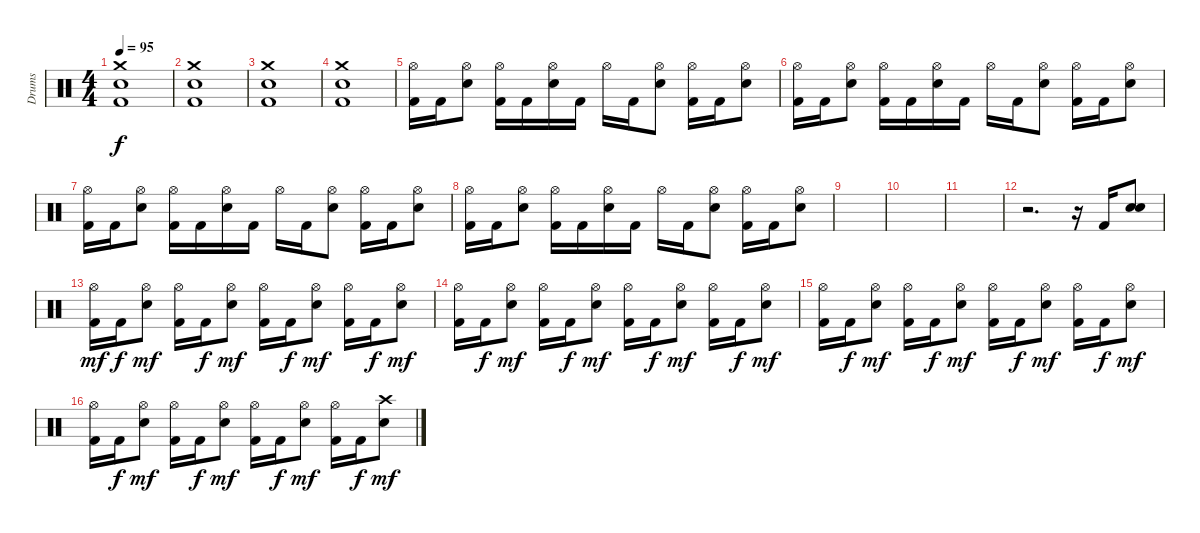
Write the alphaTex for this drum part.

\track ("Drums" "Drums") {instrument percussion}
\staff {score}
\articulation defaults
\ts (4 4)
\tempo 95
\clef neutral
\ks c
("Kick (hit) 2" "Snare (hit) 2" "Crash medium (hit)").1{dy f} |
("Kick (hit) 2" "Snare (hit) 2" "Crash medium (hit)").1 |
("Kick (hit) 2" "Snare (hit) 2" "Crash medium (hit)").1 |
("Kick (hit) 2" "Snare (hit) 2" "Crash medium (hit)").1 |
("Kick (hit) 2" "Hi-Hat (open)").16 "Kick (hit) 2".16 ("Snare (hit) 2" "Hi-Hat (open)").8 ("Kick (hit) 2" "Hi-Hat (open)").16 "Kick (hit) 2".16 ("Snare (hit) 2" "Hi-Hat (open)").16 "Kick (hit) 2".16 "Hi-Hat (open)".16 "Kick (hit) 2".16 ("Snare (hit) 2" "Hi-Hat (open)").8 ("Kick (hit) 2" "Hi-Hat (open)").16 "Kick (hit) 2".16 ("Snare (hit) 2" "Hi-Hat (open)").8 |
("Kick (hit) 2" "Hi-Hat (open)").16 "Kick (hit) 2".16 ("Snare (hit) 2" "Hi-Hat (open)").8 ("Kick (hit) 2" "Hi-Hat (open)").16 "Kick (hit) 2".16 ("Snare (hit) 2" "Hi-Hat (open)").16 "Kick (hit) 2".16 "Hi-Hat (open)".16 "Kick (hit) 2".16 ("Snare (hit) 2" "Hi-Hat (open)").8 ("Kick (hit) 2" "Hi-Hat (open)").16 "Kick (hit) 2".16 ("Snare (hit) 2" "Hi-Hat (open)").8 |
("Kick (hit) 2" "Hi-Hat (open)").16 "Kick (hit) 2".16 ("Snare (hit) 2" "Hi-Hat (open)").8 ("Kick (hit) 2" "Hi-Hat (open)").16 "Kick (hit) 2".16 ("Snare (hit) 2" "Hi-Hat (open)").16 "Kick (hit) 2".16 "Hi-Hat (open)".16 "Kick (hit) 2".16 ("Snare (hit) 2" "Hi-Hat (open)").8 ("Kick (hit) 2" "Hi-Hat (open)").16 "Kick (hit) 2".16 ("Snare (hit) 2" "Hi-Hat (open)").8 |
("Kick (hit) 2" "Hi-Hat (open)").16 "Kick (hit) 2".16 ("Snare (hit) 2" "Hi-Hat (open)").8 ("Kick (hit) 2" "Hi-Hat (open)").16 "Kick (hit) 2".16 ("Snare (hit) 2" "Hi-Hat (open)").16 "Kick (hit) 2".16 "Hi-Hat (open)".16 "Kick (hit) 2".16 ("Snare (hit) 2" "Hi-Hat (open)").8 ("Kick (hit) 2" "Hi-Hat (open)").16 "Kick (hit) 2".16 ("Snare (hit) 2" "Hi-Hat (open)").8 |
|
|
|
r.2{d} r.16 "Kick (hit) 2".16 ("Snare (hit) 2" "Snare (hit) 2").8{bd 60} |
("Hi-Hat (open)" "Kick (hit) 2").16{dy mf} "Kick (hit) 2".16{dy f} ("Hi-Hat (open)" "Snare (hit) 2").8{dy mf} ("Hi-Hat (open)" "Kick (hit) 2").16 "Kick (hit) 2".16{dy f} ("Hi-Hat (open)" "Snare (hit) 2").8{dy mf} ("Hi-Hat (open)" "Kick (hit) 2").16 "Kick (hit) 2".16{dy f} ("Hi-Hat (open)" "Snare (hit) 2").8{dy mf} ("Hi-Hat (open)" "Kick (hit) 2").16 "Kick (hit) 2".16{dy f} ("Hi-Hat (open)" "Snare (hit) 2").8{dy mf} |
("Hi-Hat (open)" "Kick (hit) 2").16 "Kick (hit) 2".16{dy f} ("Hi-Hat (open)" "Snare (hit) 2").8{dy mf} ("Hi-Hat (open)" "Kick (hit) 2").16 "Kick (hit) 2".16{dy f} ("Hi-Hat (open)" "Snare (hit) 2").8{dy mf} ("Hi-Hat (open)" "Kick (hit) 2").16 "Kick (hit) 2".16{dy f} ("Hi-Hat (open)" "Snare (hit) 2").8{dy mf} ("Hi-Hat (open)" "Kick (hit) 2").16 "Kick (hit) 2".16{dy f} ("Hi-Hat (open)" "Snare (hit) 2").8{dy mf} |
("Hi-Hat (open)" "Kick (hit) 2").16 "Kick (hit) 2".16{dy f} ("Hi-Hat (open)" "Snare (hit) 2").8{dy mf} ("Hi-Hat (open)" "Kick (hit) 2").16 "Kick (hit) 2".16{dy f} ("Hi-Hat (open)" "Snare (hit) 2").8{dy mf} ("Hi-Hat (open)" "Kick (hit) 2").16 "Kick (hit) 2".16{dy f} ("Hi-Hat (open)" "Snare (hit) 2").8{dy mf} ("Hi-Hat (open)" "Kick (hit) 2").16 "Kick (hit) 2".16{dy f} ("Hi-Hat (open)" "Snare (hit) 2").8{dy mf} |
("Hi-Hat (open)" "Kick (hit) 2").16 "Kick (hit) 2".16{dy f} ("Hi-Hat (open)" "Snare (hit) 2").8{dy mf} ("Hi-Hat (open)" "Kick (hit) 2").16 "Kick (hit) 2".16{dy f} ("Hi-Hat (open)" "Snare (hit) 2").8{dy mf} ("Hi-Hat (open)" "Kick (hit) 2").16 "Kick (hit) 2".16{dy f} ("Hi-Hat (open)" "Snare (hit) 2").8{dy mf} ("Hi-Hat (open)" "Kick (hit) 2").16 "Kick (hit) 2".16{dy f} ("Crash high (hit)" "Snare (hit) 2").8{dy mf}
